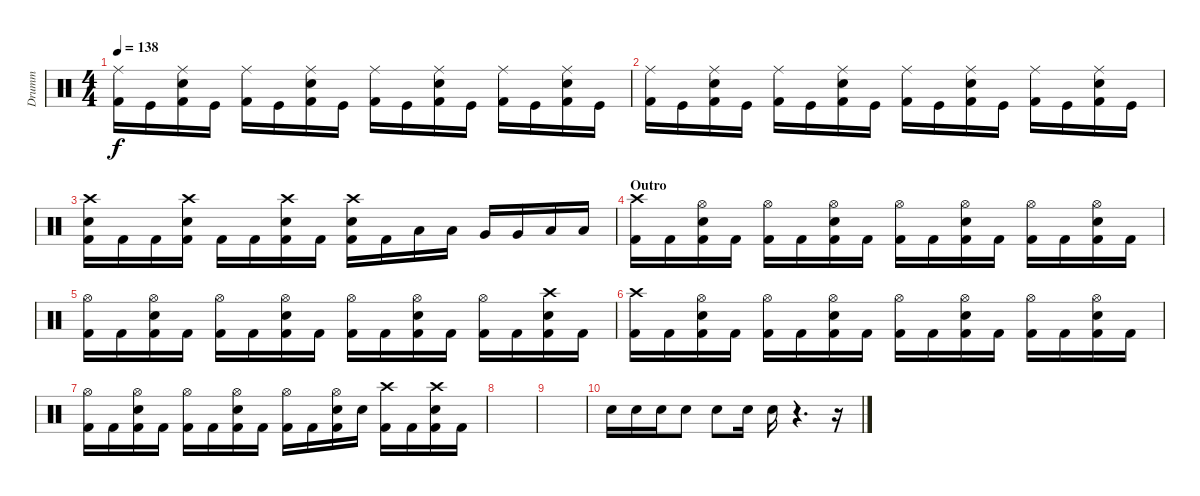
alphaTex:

\track ("Drumm" "Drumm") {instrument percussion}
\staff {score}
\articulation defaults
\ts (4 4)
\tempo 138
\clef neutral
\ks c
("Ride (middle)" "Kick (hit) 2").16{dy f} "Kick (hit)".16 ("Ride (middle)" "Snare (hit) 2" "Kick (hit) 2").16 "Kick (hit)".16 ("Ride (middle)" "Kick (hit) 2").16 "Kick (hit)".16 ("Ride (middle)" "Snare (hit) 2" "Kick (hit) 2").16 "Kick (hit)".16 ("Ride (middle)" "Kick (hit) 2").16 "Kick (hit)".16 ("Ride (middle)" "Snare (hit) 2" "Kick (hit) 2").16 "Kick (hit)".16 ("Ride (middle)" "Kick (hit) 2").16 "Kick (hit)".16 ("Ride (middle)" "Snare (hit) 2" "Kick (hit) 2").16 "Kick (hit)".16 |
("Ride (middle)" "Kick (hit) 2").16 "Kick (hit)".16 ("Ride (middle)" "Snare (hit) 2" "Kick (hit) 2").16 "Kick (hit)".16 ("Ride (middle)" "Kick (hit) 2").16 "Kick (hit)".16 ("Ride (middle)" "Snare (hit) 2" "Kick (hit) 2").16 "Kick (hit)".16 ("Ride (middle)" "Kick (hit) 2").16 "Kick (hit)".16 ("Ride (middle)" "Snare (hit) 2" "Kick (hit) 2").16 "Kick (hit)".16 ("Ride (middle)" "Kick (hit) 2").16 "Kick (hit)".16 ("Ride (middle)" "Snare (hit) 2" "Kick (hit) 2").16 "Kick (hit)".16 |
("Crash high (hit)" "Snare (hit) 2" "Kick (hit) 2").16 "Kick (hit) 2".16 "Kick (hit) 2".16 ("Crash high (hit)" "Snare (hit) 2" "Kick (hit) 2").16 "Kick (hit) 2".16 "Kick (hit) 2".16 ("Crash high (hit)" "Snare (hit) 2" "Kick (hit) 2").16 "Kick (hit) 2".16 ("Crash high (hit)" "Snare (hit) 2" "Kick (hit) 2").16 "Kick (hit) 2".16 "Low Tom (hit)".16 "Low Tom (hit)".16 "Very Low Tom (hit)".16 "Very Low Tom (hit)".16 "Low Floor Tom (hit)".16 "Low Floor Tom (hit)".16 |
\section ("" "Outro")
("Crash high (hit)" "Kick (hit) 2").16 "Kick (hit) 2".16 ("Hi-Hat (open)" "Snare (hit) 2" "Kick (hit) 2").16 "Kick (hit) 2".16 ("Hi-Hat (open)" "Kick (hit) 2").16 "Kick (hit) 2".16 ("Hi-Hat (open)" "Snare (hit) 2" "Kick (hit) 2").16 "Kick (hit) 2".16 ("Hi-Hat (open)" "Kick (hit) 2").16 "Kick (hit) 2".16 ("Hi-Hat (open)" "Snare (hit) 2" "Kick (hit) 2").16 "Kick (hit) 2".16 ("Hi-Hat (open)" "Kick (hit) 2").16 "Kick (hit) 2".16 ("Hi-Hat (open)" "Snare (hit) 2" "Kick (hit) 2").16 "Kick (hit) 2".16 |
("Hi-Hat (open)" "Kick (hit) 2").16 "Kick (hit) 2".16 ("Hi-Hat (open)" "Snare (hit) 2" "Kick (hit) 2").16 "Kick (hit) 2".16 ("Hi-Hat (open)" "Kick (hit) 2").16 "Kick (hit) 2".16 ("Hi-Hat (open)" "Snare (hit) 2" "Kick (hit) 2").16 "Kick (hit) 2".16 ("Hi-Hat (open)" "Kick (hit) 2").16 "Kick (hit) 2".16 ("Hi-Hat (open)" "Snare (hit) 2" "Kick (hit) 2").16 "Kick (hit) 2".16 ("Hi-Hat (open)" "Kick (hit) 2").16 "Kick (hit) 2".16 ("Crash high (hit)" "Snare (hit) 2" "Kick (hit) 2").16 "Kick (hit) 2".16 |
("Crash high (hit)" "Kick (hit) 2").16 "Kick (hit) 2".16 ("Hi-Hat (open)" "Snare (hit) 2" "Kick (hit) 2").16 "Kick (hit) 2".16 ("Hi-Hat (open)" "Kick (hit) 2").16 "Kick (hit) 2".16 ("Hi-Hat (open)" "Snare (hit) 2" "Kick (hit) 2").16 "Kick (hit) 2".16 ("Hi-Hat (open)" "Kick (hit) 2").16 "Kick (hit) 2".16 ("Hi-Hat (open)" "Snare (hit) 2" "Kick (hit) 2").16 "Kick (hit) 2".16 ("Hi-Hat (open)" "Kick (hit) 2").16 "Kick (hit) 2".16 ("Hi-Hat (open)" "Snare (hit) 2" "Kick (hit) 2").16 "Kick (hit) 2".16 |
("Hi-Hat (open)" "Kick (hit) 2").16 "Kick (hit) 2".16 ("Hi-Hat (open)" "Snare (hit) 2" "Kick (hit) 2").16 "Kick (hit) 2".16 ("Hi-Hat (open)" "Kick (hit) 2").16 "Kick (hit) 2".16 ("Hi-Hat (open)" "Snare (hit) 2" "Kick (hit) 2").16 "Kick (hit) 2".16 ("Hi-Hat (open)" "Kick (hit) 2").16 "Kick (hit) 2".16 ("Hi-Hat (open)" "Snare (hit) 2" "Kick (hit) 2").16 "Snare (hit)".16 ("Crash high (hit)" "Kick (hit) 2").16 "Kick (hit) 2".16 ("Crash high (hit)" "Snare (hit) 2" "Kick (hit) 2").16 "Kick (hit) 2".16 |
|
|
"Snare (hit) 2".16 "Snare (hit) 2".16 "Snare (hit) 2".16 "Snare (hit) 2".8 "Snare (hit) 2".8 "Snare (hit) 2".16 "Snare (hit) 2".16 r.4{d} r.16
